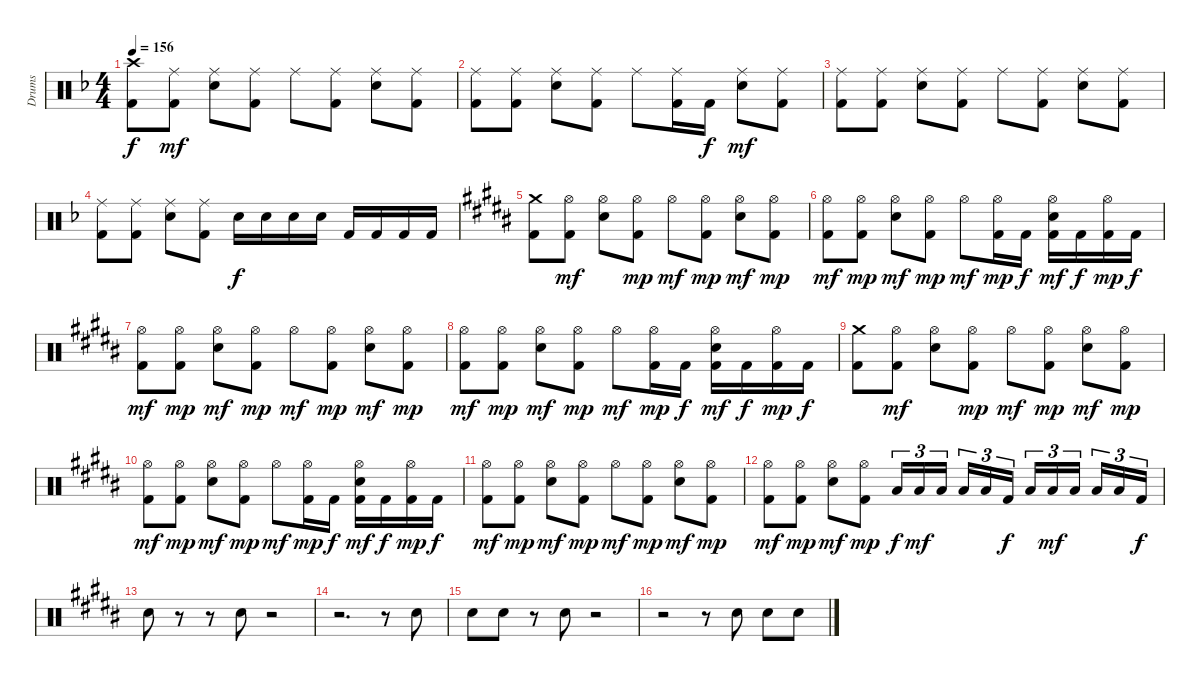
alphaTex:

\track ("Drums" "Drums") {instrument percussion}
\staff {score}
\articulation defaults
\ts (4 4)
\tempo 156
\clef neutral
\ks dminor
("Crash high (hit)" "Kick (hit) 2").8{dy f} ("Ride (middle)" "Kick (hit) 2").8{dy mf} ("Ride (middle)" "Snare (hit) 2").8 ("Ride (middle)" "Kick (hit) 2").8 "Ride (middle)".8 ("Ride (middle)" "Kick (hit) 2").8 ("Ride (middle)" "Snare (hit) 2").8 ("Ride (middle)" "Kick (hit) 2").8 |
("Ride (middle)" "Kick (hit) 2").8 ("Ride (middle)" "Kick (hit) 2").8 ("Ride (middle)" "Snare (hit) 2").8 ("Ride (middle)" "Kick (hit) 2").8 "Ride (middle)".8 ("Ride (middle)" "Kick (hit) 2").16 "Kick (hit) 2".16{dy f} ("Ride (middle)" "Snare (hit) 2").8{dy mf} ("Ride (middle)" "Kick (hit) 2").8 |
("Ride (middle)" "Kick (hit) 2").8 ("Ride (middle)" "Kick (hit) 2").8 ("Ride (middle)" "Snare (hit) 2").8 ("Ride (middle)" "Kick (hit) 2").8 "Ride (middle)".8 ("Ride (middle)" "Kick (hit) 2").8 ("Ride (middle)" "Snare (hit) 2").8 ("Ride (middle)" "Kick (hit) 2").8 |
("Ride (middle)" "Kick (hit) 2").8 ("Ride (middle)" "Kick (hit) 2").8 ("Ride (middle)" "Snare (hit) 2").8 ("Ride (middle)" "Kick (hit) 2").8 "Snare (hit) 2".16{dy f} "Snare (hit) 2".16 "Snare (hit) 2".16 "Snare (hit) 2".16 "Kick (hit) 2".16 "Kick (hit) 2".16 "Kick (hit) 2".16 "Kick (hit) 2".16 |
\ks g#minor
("Crash medium (hit)" "Kick (hit) 2").8 ("Hi-Hat (open)" "Kick (hit) 2").8{dy mf} ("Hi-Hat (open)" "Snare (hit) 2").8 ("Hi-Hat (open)" "Kick (hit) 2").8{dy mp} "Hi-Hat (open)".8{dy mf} ("Hi-Hat (open)" "Kick (hit) 2").8{dy mp} ("Hi-Hat (open)" "Snare (hit) 2").8{dy mf} ("Hi-Hat (open)" "Kick (hit) 2").8{dy mp} |
("Hi-Hat (open)" "Kick (hit) 2").8{dy mf} ("Hi-Hat (open)" "Kick (hit) 2").8{dy mp} ("Hi-Hat (open)" "Snare (hit) 2").8{dy mf} ("Hi-Hat (open)" "Kick (hit) 2").8{dy mp} "Hi-Hat (open)".8{dy mf} ("Hi-Hat (open)" "Kick (hit) 2").16{dy mp} "Kick (hit) 2".16{dy f} ("Hi-Hat (open)" "Snare (hit) 2" "Kick (hit) 2").16{dy mf} "Kick (hit) 2".16{dy f} ("Hi-Hat (open)" "Kick (hit) 2").16{dy mp} "Kick (hit) 2".16{dy f} |
("Hi-Hat (open)" "Kick (hit) 2").8{dy mf} ("Hi-Hat (open)" "Kick (hit) 2").8{dy mp} ("Hi-Hat (open)" "Snare (hit) 2").8{dy mf} ("Hi-Hat (open)" "Kick (hit) 2").8{dy mp} "Hi-Hat (open)".8{dy mf} ("Hi-Hat (open)" "Kick (hit) 2").8{dy mp} ("Hi-Hat (open)" "Snare (hit) 2").8{dy mf} ("Hi-Hat (open)" "Kick (hit) 2").8{dy mp} |
("Hi-Hat (open)" "Kick (hit) 2").8{dy mf} ("Hi-Hat (open)" "Kick (hit) 2").8{dy mp} ("Hi-Hat (open)" "Snare (hit) 2").8{dy mf} ("Hi-Hat (open)" "Kick (hit) 2").8{dy mp} "Hi-Hat (open)".8{dy mf} ("Hi-Hat (open)" "Kick (hit) 2").16{dy mp} "Kick (hit) 2".16{dy f} ("Hi-Hat (open)" "Snare (hit) 2" "Kick (hit) 2").16{dy mf} "Kick (hit) 2".16{dy f} ("Hi-Hat (open)" "Kick (hit) 2").16{dy mp} "Kick (hit) 2".16{dy f} |
("Crash medium (hit)" "Kick (hit) 2").8 ("Hi-Hat (open)" "Kick (hit) 2").8{dy mf} ("Hi-Hat (open)" "Snare (hit) 2").8 ("Hi-Hat (open)" "Kick (hit) 2").8{dy mp} "Hi-Hat (open)".8{dy mf} ("Hi-Hat (open)" "Kick (hit) 2").8{dy mp} ("Hi-Hat (open)" "Snare (hit) 2").8{dy mf} ("Hi-Hat (open)" "Kick (hit) 2").8{dy mp} |
("Hi-Hat (open)" "Kick (hit) 2").8{dy mf} ("Hi-Hat (open)" "Kick (hit) 2").8{dy mp} ("Hi-Hat (open)" "Snare (hit) 2").8{dy mf} ("Hi-Hat (open)" "Kick (hit) 2").8{dy mp} "Hi-Hat (open)".8{dy mf} ("Hi-Hat (open)" "Kick (hit) 2").16{dy mp} "Kick (hit) 2".16{dy f} ("Hi-Hat (open)" "Snare (hit) 2" "Kick (hit) 2").16{dy mf} "Kick (hit) 2".16{dy f} ("Hi-Hat (open)" "Kick (hit) 2").16{dy mp} "Kick (hit) 2".16{dy f} |
("Hi-Hat (open)" "Kick (hit) 2").8{dy mf} ("Hi-Hat (open)" "Kick (hit) 2").8{dy mp} ("Hi-Hat (open)" "Snare (hit) 2").8{dy mf} ("Hi-Hat (open)" "Kick (hit) 2").8{dy mp} "Hi-Hat (open)".8{dy mf} ("Hi-Hat (open)" "Kick (hit) 2").8{dy mp} ("Hi-Hat (open)" "Snare (hit) 2").8{dy mf} ("Hi-Hat (open)" "Kick (hit) 2").8{dy mp} |
("Hi-Hat (open)" "Kick (hit) 2").8{dy mf} ("Hi-Hat (open)" "Kick (hit) 2").8{dy mp} ("Hi-Hat (open)" "Snare (hit) 2").8{dy mf} ("Hi-Hat (open)" "Kick (hit) 2").8{dy mp} "Low Tom (hit)".16{tu (3 2) dy f} "Low Tom (hit)".16{tu (3 2) dy mf} "Low Tom (hit)".16{tu (3 2) beam splitsecondary} "Low Tom (hit)".16{tu (3 2)} "Low Tom (hit)".16{tu (3 2)} "Kick (hit) 2".16{tu (3 2) dy f} "Low Floor Tom (hit)".16{tu (3 2)} "Low Floor Tom (hit)".16{tu (3 2) dy mf} "Low Floor Tom (hit)".16{tu (3 2) beam splitsecondary} "Low Floor Tom (hit)".16{tu (3 2)} "Low Floor Tom (hit)".16{tu (3 2)} "Kick (hit) 2".16{tu (3 2) dy f} |
"Snare (hit) 2".8 r.8 r.8 "Snare (hit) 2".8 r.2 |
r.2{d} r.8 "Snare (hit) 2".8 |
"Snare (hit) 2".8 "Snare (hit) 2".8 r.8 "Snare (hit) 2".8 r.2 |
r.2 r.8 "Snare (hit) 2".8 "Snare (hit) 2".8 "Snare (hit) 2".8
